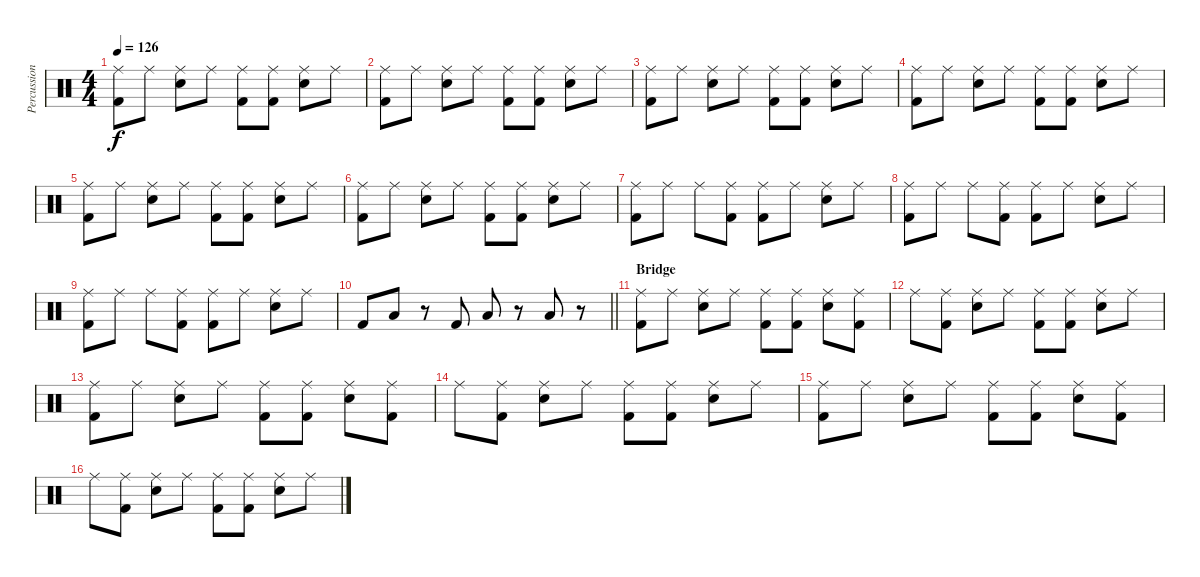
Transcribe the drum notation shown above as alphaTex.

\track ("Percussions" "Percussion") {instrument percussion}
\staff {score}
\articulation defaults
\ts (4 4)
\tempo 126
\clef neutral
\ks c
("Ride (middle)" "Kick (hit) 2").8{dy f} "Ride (middle)".8 ("Ride (middle)" "Snare (hit) 2").8 "Ride (middle)".8 ("Ride (middle)" "Kick (hit) 2").8 ("Ride (middle)" "Kick (hit) 2").8 ("Ride (middle)" "Snare (hit) 2").8 "Ride (middle)".8 |
("Ride (middle)" "Kick (hit) 2").8 "Ride (middle)".8 ("Ride (middle)" "Snare (hit) 2").8 "Ride (middle)".8 ("Ride (middle)" "Kick (hit) 2").8 ("Ride (middle)" "Kick (hit) 2").8 ("Ride (middle)" "Snare (hit) 2").8 "Ride (middle)".8 |
("Ride (middle)" "Kick (hit) 2").8 "Ride (middle)".8 ("Ride (middle)" "Snare (hit) 2").8 "Ride (middle)".8 ("Ride (middle)" "Kick (hit) 2").8 ("Ride (middle)" "Kick (hit) 2").8 ("Ride (middle)" "Snare (hit) 2").8 "Ride (middle)".8 |
("Ride (middle)" "Kick (hit) 2").8 "Ride (middle)".8 ("Ride (middle)" "Snare (hit) 2").8 "Ride (middle)".8 ("Ride (middle)" "Kick (hit) 2").8 ("Ride (middle)" "Kick (hit) 2").8 ("Ride (middle)" "Snare (hit) 2").8 "Ride (middle)".8 |
("Ride (middle)" "Kick (hit) 2").8 "Ride (middle)".8 ("Ride (middle)" "Snare (hit) 2").8 "Ride (middle)".8 ("Ride (middle)" "Kick (hit) 2").8 ("Ride (middle)" "Kick (hit) 2").8 ("Ride (middle)" "Snare (hit) 2").8 "Ride (middle)".8 |
("Ride (middle)" "Kick (hit) 2").8 "Ride (middle)".8 ("Ride (middle)" "Snare (hit) 2").8 "Ride (middle)".8 ("Ride (middle)" "Kick (hit) 2").8 ("Ride (middle)" "Kick (hit) 2").8 ("Ride (middle)" "Snare (hit) 2").8 "Ride (middle)".8 |
("Ride (middle)" "Kick (hit) 2").8 "Ride (middle)".8 "Ride (middle)".8 ("Ride (middle)" "Kick (hit) 2").8 ("Ride (middle)" "Kick (hit) 2").8 "Ride (middle)".8 ("Ride (middle)" "Snare (hit) 2").8 "Ride (middle)".8 |
("Ride (middle)" "Kick (hit) 2").8 "Ride (middle)".8 "Ride (middle)".8 ("Ride (middle)" "Kick (hit) 2").8 ("Ride (middle)" "Kick (hit) 2").8 "Ride (middle)".8 ("Ride (middle)" "Snare (hit) 2").8 "Ride (middle)".8 |
("Ride (middle)" "Kick (hit) 2").8 "Ride (middle)".8 "Ride (middle)".8 ("Ride (middle)" "Kick (hit) 2").8 ("Ride (middle)" "Kick (hit) 2").8 "Ride (middle)".8 ("Ride (middle)" "Snare (hit) 2").8 "Ride (middle)".8 |
\barLineRight lightlight "Kick (hit) 2".8 "Low Tom (hit)".8
r.8 "Kick (hit) 2".8 "Low Tom (hit)".8 r.8 "Low Floor Tom (hit)".8 r.8 |
\section ("" "Bridge")
("Ride (middle)" "Kick (hit) 2").8 "Ride (middle)".8 ("Ride (middle)" "Snare (hit) 2").8 "Ride (middle)".8 ("Ride (middle)" "Kick (hit) 2").8 ("Ride (middle)" "Kick (hit) 2").8 ("Ride (middle)" "Snare (hit) 2").8 ("Ride (middle)" "Kick (hit) 2").8 |
"Ride (middle)".8 ("Ride (middle)" "Kick (hit) 2").8 ("Ride (middle)" "Snare (hit) 2").8 "Ride (middle)".8 ("Ride (middle)" "Kick (hit) 2").8 ("Ride (middle)" "Kick (hit) 2").8 ("Ride (middle)" "Snare (hit) 2").8 "Ride (middle)".8 |
("Ride (middle)" "Kick (hit) 2").8 "Ride (middle)".8 ("Ride (middle)" "Snare (hit) 2").8 "Ride (middle)".8 ("Ride (middle)" "Kick (hit) 2").8 ("Ride (middle)" "Kick (hit) 2").8 ("Ride (middle)" "Snare (hit) 2").8 ("Ride (middle)" "Kick (hit) 2").8 |
"Ride (middle)".8 ("Ride (middle)" "Kick (hit) 2").8 ("Ride (middle)" "Snare (hit) 2").8 "Ride (middle)".8 ("Ride (middle)" "Kick (hit) 2").8 ("Ride (middle)" "Kick (hit) 2").8 ("Ride (middle)" "Snare (hit) 2").8 "Ride (middle)".8 |
("Ride (middle)" "Kick (hit) 2").8 "Ride (middle)".8 ("Ride (middle)" "Snare (hit) 2").8 "Ride (middle)".8 ("Ride (middle)" "Kick (hit) 2").8 ("Ride (middle)" "Kick (hit) 2").8 ("Ride (middle)" "Snare (hit) 2").8 ("Ride (middle)" "Kick (hit) 2").8 |
"Ride (middle)".8 ("Ride (middle)" "Kick (hit) 2").8 ("Ride (middle)" "Snare (hit) 2").8 "Ride (middle)".8 ("Ride (middle)" "Kick (hit) 2").8 ("Ride (middle)" "Kick (hit) 2").8 ("Ride (middle)" "Snare (hit) 2").8 "Ride (middle)".8
